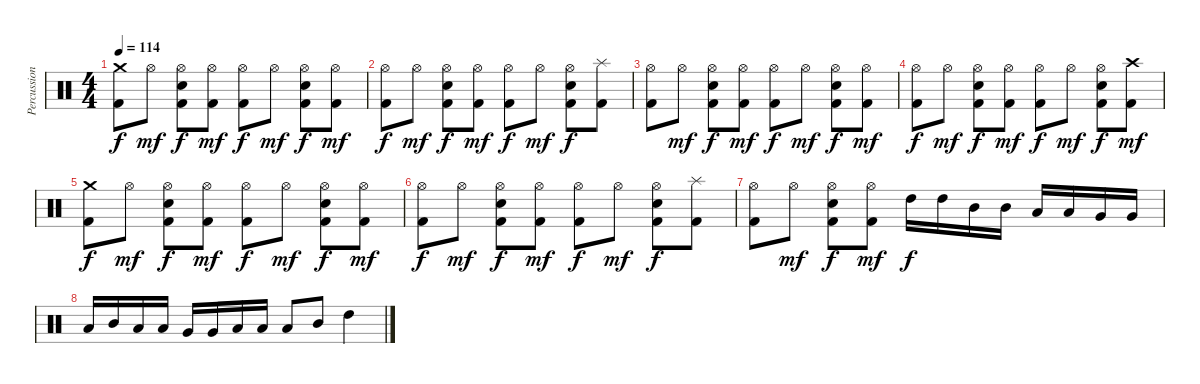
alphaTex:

\track ("Percussion" "Percussion") {instrument percussion}
\staff {score}
\articulation defaults
\ts (4 4)
\tempo 114
\clef neutral
\ks c
("Crash medium (hit)" "Kick (hit) 2").8{dy f} "Hi-Hat (open)".8{dy mf} ("Snare (hit) 2" "Hi-Hat (open)" "Kick (hit) 2").8{dy f} ("Hi-Hat (open)" "Kick (hit) 2").8{dy mf} ("Hi-Hat (open)" "Kick (hit) 2").8{dy f} "Hi-Hat (open)".8{dy mf} ("Snare (hit) 2" "Hi-Hat (open)" "Kick (hit) 2").8{dy f} ("Hi-Hat (open)" "Kick (hit) 2").8{dy mf} |
("Hi-Hat (open)" "Kick (hit) 2").8{dy f} "Hi-Hat (open)".8{dy mf} ("Snare (hit) 2" "Hi-Hat (open)" "Kick (hit) 2").8{dy f} ("Hi-Hat (open)" "Kick (hit) 2").8{dy mf} ("Hi-Hat (open)" "Kick (hit) 2").8{dy f} "Hi-Hat (open)".8{dy mf} ("Snare (hit) 2" "Hi-Hat (open)" "Kick (hit) 2").8{dy f} ("Splash (hit)" "Kick (hit) 2").8 |
("Hi-Hat (open)" "Kick (hit) 2").8 "Hi-Hat (open)".8{dy mf} ("Snare (hit) 2" "Hi-Hat (open)" "Kick (hit) 2").8{dy f} ("Hi-Hat (open)" "Kick (hit) 2").8{dy mf} ("Hi-Hat (open)" "Kick (hit) 2").8{dy f} "Hi-Hat (open)".8{dy mf} ("Snare (hit) 2" "Hi-Hat (open)" "Kick (hit) 2").8{dy f} ("Hi-Hat (open)" "Kick (hit) 2").8{dy mf} |
("Hi-Hat (open)" "Kick (hit) 2").8{dy f} "Hi-Hat (open)".8{dy mf} ("Snare (hit) 2" "Hi-Hat (open)" "Kick (hit) 2").8{dy f} ("Hi-Hat (open)" "Kick (hit) 2").8{dy mf} ("Hi-Hat (open)" "Kick (hit) 2").8{dy f} "Hi-Hat (open)".8{dy mf} ("Snare (hit) 2" "Hi-Hat (open)" "Kick (hit) 2").8{dy f} ("Crash high (hit)" "Kick (hit) 2").8{dy mf} |
("Crash medium (hit)" "Kick (hit) 2").8{dy f} "Hi-Hat (open)".8{dy mf} ("Snare (hit) 2" "Hi-Hat (open)" "Kick (hit) 2").8{dy f} ("Hi-Hat (open)" "Kick (hit) 2").8{dy mf} ("Hi-Hat (open)" "Kick (hit) 2").8{dy f} "Hi-Hat (open)".8{dy mf} ("Snare (hit) 2" "Hi-Hat (open)" "Kick (hit) 2").8{dy f} ("Hi-Hat (open)" "Kick (hit) 2").8{dy mf} |
("Hi-Hat (open)" "Kick (hit) 2").8{dy f} "Hi-Hat (open)".8{dy mf} ("Snare (hit) 2" "Hi-Hat (open)" "Kick (hit) 2").8{dy f} ("Hi-Hat (open)" "Kick (hit) 2").8{dy mf} ("Hi-Hat (open)" "Kick (hit) 2").8{dy f} "Hi-Hat (open)".8{dy mf} ("Snare (hit) 2" "Hi-Hat (open)" "Kick (hit) 2").8{dy f} ("Splash (hit)" "Kick (hit) 2").8 |
("Hi-Hat (open)" "Kick (hit) 2").8 "Hi-Hat (open)".8{dy mf} ("Snare (hit) 2" "Hi-Hat (open)" "Kick (hit) 2").8{dy f} ("Hi-Hat (open)" "Kick (hit) 2").8{dy mf} "High Tom (hit)".16{dy f} "High Tom (hit)".16 "Mid Tom (hit)".16 "Mid Tom (hit)".16 "Low Tom (hit)".16 "Low Tom (hit)".16 "Very Low Tom (hit)".16 "Very Low Tom (hit)".16 |
"Low Tom (hit)".16 "Mid Tom (hit)".16 "Low Tom (hit)".16 "Low Tom (hit)".16 "Very Low Tom (hit)".16 "Very Low Tom (hit)".16 "Low Floor Tom (hit)".16 "Low Floor Tom (hit)".16 "Low Tom (hit)".8 "Mid Tom (hit)".8 "High Tom (hit)".4
